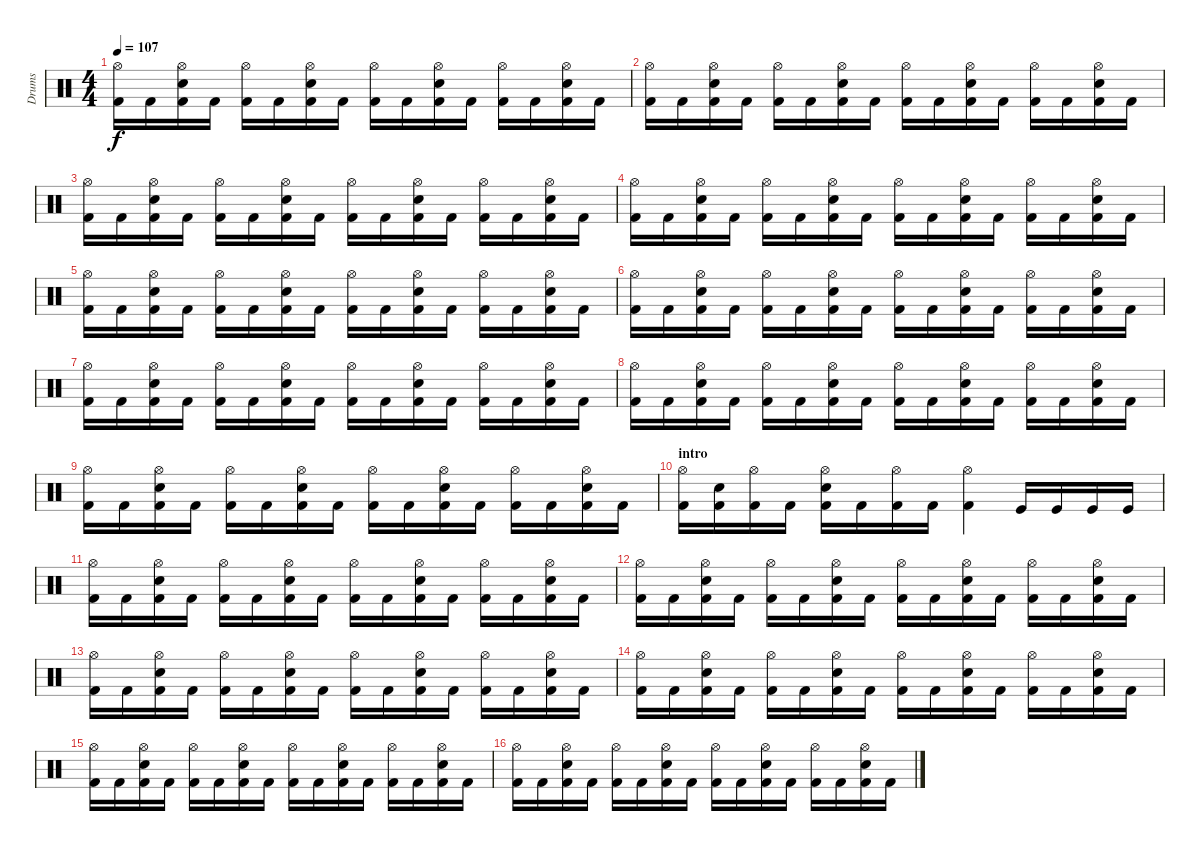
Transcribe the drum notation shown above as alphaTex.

\track ("Drums" "Drums") {instrument percussion}
\staff {score}
\articulation defaults
\ts (4 4)
\tempo 107
\clef neutral
\ks c
("Hi-Hat (open)" "Kick (hit) 2").16{dy f} "Kick (hit) 2".16 ("Hi-Hat (open)" "Snare (hit) 2" "Kick (hit) 2").16 "Kick (hit) 2".16 ("Hi-Hat (open)" "Kick (hit) 2").16 "Kick (hit) 2".16 ("Hi-Hat (open)" "Snare (hit) 2" "Kick (hit) 2").16 "Kick (hit) 2".16 ("Hi-Hat (open)" "Kick (hit) 2").16 "Kick (hit) 2".16 ("Hi-Hat (open)" "Snare (hit) 2" "Kick (hit) 2").16 "Kick (hit) 2".16 ("Hi-Hat (open)" "Kick (hit) 2").16 "Kick (hit) 2".16 ("Hi-Hat (open)" "Snare (hit) 2" "Kick (hit) 2").16 "Kick (hit) 2".16 |
("Hi-Hat (open)" "Kick (hit) 2").16 "Kick (hit) 2".16 ("Hi-Hat (open)" "Snare (hit) 2" "Kick (hit) 2").16 "Kick (hit) 2".16 ("Hi-Hat (open)" "Kick (hit) 2").16 "Kick (hit) 2".16 ("Hi-Hat (open)" "Snare (hit) 2" "Kick (hit) 2").16 "Kick (hit) 2".16 ("Hi-Hat (open)" "Kick (hit) 2").16 "Kick (hit) 2".16 ("Hi-Hat (open)" "Snare (hit) 2" "Kick (hit) 2").16 "Kick (hit) 2".16 ("Hi-Hat (open)" "Kick (hit) 2").16 "Kick (hit) 2".16 ("Hi-Hat (open)" "Snare (hit) 2" "Kick (hit) 2").16 "Kick (hit) 2".16 |
("Hi-Hat (open)" "Kick (hit) 2").16 "Kick (hit) 2".16 ("Hi-Hat (open)" "Snare (hit) 2" "Kick (hit) 2").16 "Kick (hit) 2".16 ("Hi-Hat (open)" "Kick (hit) 2").16 "Kick (hit) 2".16 ("Hi-Hat (open)" "Snare (hit) 2" "Kick (hit) 2").16 "Kick (hit) 2".16 ("Hi-Hat (open)" "Kick (hit) 2").16 "Kick (hit) 2".16 ("Hi-Hat (open)" "Snare (hit) 2" "Kick (hit) 2").16 "Kick (hit) 2".16 ("Hi-Hat (open)" "Kick (hit) 2").16 "Kick (hit) 2".16 ("Hi-Hat (open)" "Snare (hit) 2" "Kick (hit) 2").16 "Kick (hit) 2".16 |
("Hi-Hat (open)" "Kick (hit) 2").16 "Kick (hit) 2".16 ("Hi-Hat (open)" "Snare (hit) 2" "Kick (hit) 2").16 "Kick (hit) 2".16 ("Hi-Hat (open)" "Kick (hit) 2").16 "Kick (hit) 2".16 ("Hi-Hat (open)" "Snare (hit) 2" "Kick (hit) 2").16 "Kick (hit) 2".16 ("Hi-Hat (open)" "Kick (hit) 2").16 "Kick (hit) 2".16 ("Hi-Hat (open)" "Snare (hit) 2" "Kick (hit) 2").16 "Kick (hit) 2".16 ("Hi-Hat (open)" "Kick (hit) 2").16 "Kick (hit) 2".16 ("Hi-Hat (open)" "Snare (hit) 2" "Kick (hit) 2").16 "Kick (hit) 2".16 |
("Hi-Hat (open)" "Kick (hit) 2").16 "Kick (hit) 2".16 ("Hi-Hat (open)" "Snare (hit) 2" "Kick (hit) 2").16 "Kick (hit) 2".16 ("Hi-Hat (open)" "Kick (hit) 2").16 "Kick (hit) 2".16 ("Hi-Hat (open)" "Snare (hit) 2" "Kick (hit) 2").16 "Kick (hit) 2".16 ("Hi-Hat (open)" "Kick (hit) 2").16 "Kick (hit) 2".16 ("Hi-Hat (open)" "Snare (hit) 2" "Kick (hit) 2").16 "Kick (hit) 2".16 ("Hi-Hat (open)" "Kick (hit) 2").16 "Kick (hit) 2".16 ("Hi-Hat (open)" "Snare (hit) 2" "Kick (hit) 2").16 "Kick (hit) 2".16 |
("Hi-Hat (open)" "Kick (hit) 2").16 "Kick (hit) 2".16 ("Hi-Hat (open)" "Snare (hit) 2" "Kick (hit) 2").16 "Kick (hit) 2".16 ("Hi-Hat (open)" "Kick (hit) 2").16 "Kick (hit) 2".16 ("Hi-Hat (open)" "Snare (hit) 2" "Kick (hit) 2").16 "Kick (hit) 2".16 ("Hi-Hat (open)" "Kick (hit) 2").16 "Kick (hit) 2".16 ("Hi-Hat (open)" "Snare (hit) 2" "Kick (hit) 2").16 "Kick (hit) 2".16 ("Hi-Hat (open)" "Kick (hit) 2").16 "Kick (hit) 2".16 ("Hi-Hat (open)" "Snare (hit) 2" "Kick (hit) 2").16 "Kick (hit) 2".16 |
("Hi-Hat (open)" "Kick (hit) 2").16 "Kick (hit) 2".16 ("Hi-Hat (open)" "Snare (hit) 2" "Kick (hit) 2").16 "Kick (hit) 2".16 ("Hi-Hat (open)" "Kick (hit) 2").16 "Kick (hit) 2".16 ("Hi-Hat (open)" "Snare (hit) 2" "Kick (hit) 2").16 "Kick (hit) 2".16 ("Hi-Hat (open)" "Kick (hit) 2").16 "Kick (hit) 2".16 ("Hi-Hat (open)" "Snare (hit) 2" "Kick (hit) 2").16 "Kick (hit) 2".16 ("Hi-Hat (open)" "Kick (hit) 2").16 "Kick (hit) 2".16 ("Hi-Hat (open)" "Snare (hit) 2" "Kick (hit) 2").16 "Kick (hit) 2".16 |
("Hi-Hat (open)" "Kick (hit) 2").16 "Kick (hit) 2".16 ("Hi-Hat (open)" "Snare (hit) 2" "Kick (hit) 2").16 "Kick (hit) 2".16 ("Hi-Hat (open)" "Kick (hit) 2").16 "Kick (hit) 2".16 ("Hi-Hat (open)" "Snare (hit) 2" "Kick (hit) 2").16 "Kick (hit) 2".16 ("Hi-Hat (open)" "Kick (hit) 2").16 "Kick (hit) 2".16 ("Hi-Hat (open)" "Snare (hit) 2" "Kick (hit) 2").16 "Kick (hit) 2".16 ("Hi-Hat (open)" "Kick (hit) 2").16 "Kick (hit) 2".16 ("Hi-Hat (open)" "Snare (hit) 2" "Kick (hit) 2").16 "Kick (hit) 2".16 |
("Hi-Hat (open)" "Kick (hit) 2").16 "Kick (hit) 2".16 ("Hi-Hat (open)" "Snare (hit) 2" "Kick (hit) 2").16 "Kick (hit) 2".16 ("Hi-Hat (open)" "Kick (hit) 2").16 "Kick (hit) 2".16 ("Hi-Hat (open)" "Snare (hit) 2" "Kick (hit) 2").16 "Kick (hit) 2".16 ("Hi-Hat (open)" "Kick (hit) 2").16 "Kick (hit) 2".16 ("Hi-Hat (open)" "Snare (hit) 2" "Kick (hit) 2").16 "Kick (hit) 2".16 ("Hi-Hat (open)" "Kick (hit) 2").16 "Kick (hit) 2".16 ("Hi-Hat (open)" "Snare (hit) 2" "Kick (hit) 2").16 "Kick (hit) 2".16 |
\section ("" "intro")
("Hi-Hat (open)" "Kick (hit) 2").16 ("Snare (hit) 2" "Kick (hit) 2").16 ("Hi-Hat (open)" "Kick (hit) 2").16 "Kick (hit) 2".16 ("Hi-Hat (open)" "Snare (hit) 2" "Kick (hit) 2").16 "Kick (hit) 2".16 ("Hi-Hat (open)" "Kick (hit) 2").16 "Kick (hit) 2".16 ("Hi-Hat (open)" "Kick (hit) 2").4 "Kick (hit)".16 "Kick (hit)".16 "Kick (hit)".16 "Kick (hit)".16 |
("Hi-Hat (open)" "Kick (hit) 2").16 "Kick (hit) 2".16 ("Hi-Hat (open)" "Snare (hit) 2" "Kick (hit) 2").16 "Kick (hit) 2".16 ("Hi-Hat (open)" "Kick (hit) 2").16 "Kick (hit) 2".16 ("Hi-Hat (open)" "Snare (hit) 2" "Kick (hit) 2").16 "Kick (hit) 2".16 ("Hi-Hat (open)" "Kick (hit) 2").16 "Kick (hit) 2".16 ("Hi-Hat (open)" "Snare (hit) 2" "Kick (hit) 2").16 "Kick (hit) 2".16 ("Hi-Hat (open)" "Kick (hit) 2").16 "Kick (hit) 2".16 ("Hi-Hat (open)" "Snare (hit) 2" "Kick (hit) 2").16 "Kick (hit) 2".16 |
("Hi-Hat (open)" "Kick (hit) 2").16 "Kick (hit) 2".16 ("Hi-Hat (open)" "Snare (hit) 2" "Kick (hit) 2").16 "Kick (hit) 2".16 ("Hi-Hat (open)" "Kick (hit) 2").16 "Kick (hit) 2".16 ("Hi-Hat (open)" "Snare (hit) 2" "Kick (hit) 2").16 "Kick (hit) 2".16 ("Hi-Hat (open)" "Kick (hit) 2").16 "Kick (hit) 2".16 ("Hi-Hat (open)" "Snare (hit) 2" "Kick (hit) 2").16 "Kick (hit) 2".16 ("Hi-Hat (open)" "Kick (hit) 2").16 "Kick (hit) 2".16 ("Hi-Hat (open)" "Snare (hit) 2" "Kick (hit) 2").16 "Kick (hit) 2".16 |
("Hi-Hat (open)" "Kick (hit) 2").16 "Kick (hit) 2".16 ("Hi-Hat (open)" "Snare (hit) 2" "Kick (hit) 2").16 "Kick (hit) 2".16 ("Hi-Hat (open)" "Kick (hit) 2").16 "Kick (hit) 2".16 ("Hi-Hat (open)" "Snare (hit) 2" "Kick (hit) 2").16 "Kick (hit) 2".16 ("Hi-Hat (open)" "Kick (hit) 2").16 "Kick (hit) 2".16 ("Hi-Hat (open)" "Snare (hit) 2" "Kick (hit) 2").16 "Kick (hit) 2".16 ("Hi-Hat (open)" "Kick (hit) 2").16 "Kick (hit) 2".16 ("Hi-Hat (open)" "Snare (hit) 2" "Kick (hit) 2").16 "Kick (hit) 2".16 |
("Hi-Hat (open)" "Kick (hit) 2").16 "Kick (hit) 2".16 ("Hi-Hat (open)" "Snare (hit) 2" "Kick (hit) 2").16 "Kick (hit) 2".16 ("Hi-Hat (open)" "Kick (hit) 2").16 "Kick (hit) 2".16 ("Hi-Hat (open)" "Snare (hit) 2" "Kick (hit) 2").16 "Kick (hit) 2".16 ("Hi-Hat (open)" "Kick (hit) 2").16 "Kick (hit) 2".16 ("Hi-Hat (open)" "Snare (hit) 2" "Kick (hit) 2").16 "Kick (hit) 2".16 ("Hi-Hat (open)" "Kick (hit) 2").16 "Kick (hit) 2".16 ("Hi-Hat (open)" "Snare (hit) 2" "Kick (hit) 2").16 "Kick (hit) 2".16 |
("Hi-Hat (open)" "Kick (hit) 2").16 "Kick (hit) 2".16 ("Hi-Hat (open)" "Snare (hit) 2" "Kick (hit) 2").16 "Kick (hit) 2".16 ("Hi-Hat (open)" "Kick (hit) 2").16 "Kick (hit) 2".16 ("Hi-Hat (open)" "Snare (hit) 2" "Kick (hit) 2").16 "Kick (hit) 2".16 ("Hi-Hat (open)" "Kick (hit) 2").16 "Kick (hit) 2".16 ("Hi-Hat (open)" "Snare (hit) 2" "Kick (hit) 2").16 "Kick (hit) 2".16 ("Hi-Hat (open)" "Kick (hit) 2").16 "Kick (hit) 2".16 ("Hi-Hat (open)" "Snare (hit) 2" "Kick (hit) 2").16 "Kick (hit) 2".16 |
("Hi-Hat (open)" "Kick (hit) 2").16 "Kick (hit) 2".16 ("Hi-Hat (open)" "Snare (hit) 2" "Kick (hit) 2").16 "Kick (hit) 2".16 ("Hi-Hat (open)" "Kick (hit) 2").16 "Kick (hit) 2".16 ("Hi-Hat (open)" "Snare (hit) 2" "Kick (hit) 2").16 "Kick (hit) 2".16 ("Hi-Hat (open)" "Kick (hit) 2").16 "Kick (hit) 2".16 ("Hi-Hat (open)" "Snare (hit) 2" "Kick (hit) 2").16 "Kick (hit) 2".16 ("Hi-Hat (open)" "Kick (hit) 2").16 "Kick (hit) 2".16 ("Hi-Hat (open)" "Snare (hit) 2" "Kick (hit) 2").16 "Kick (hit) 2".16
